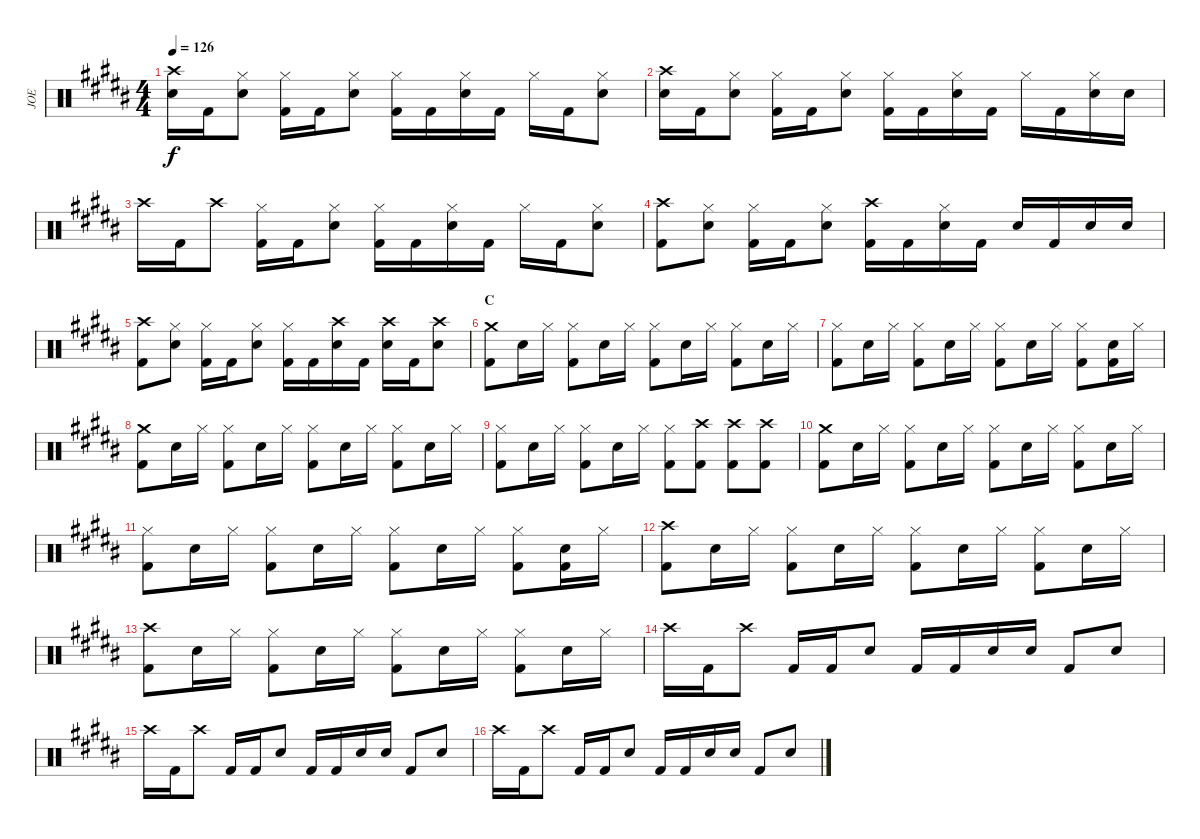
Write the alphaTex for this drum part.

\track ("JOE" "JOE") {instrument percussion}
\staff {score}
\articulation defaults
\ts (4 4)
\tempo 126
\clef neutral
\ks b
("Crash high (hit)" "Snare (hit) 2").16{dy f} "Kick (hit) 2".16 ("Hi-Hat (closed)" "Snare (hit) 2").8 ("Hi-Hat (closed)" "Kick (hit) 2").16 "Kick (hit) 2".16 ("Hi-Hat (closed)" "Snare (hit) 2").8 ("Hi-Hat (closed)" "Kick (hit) 2").16 "Kick (hit) 2".16 ("Hi-Hat (closed)" "Snare (hit) 2").16 "Kick (hit) 2".16 "Hi-Hat (closed)".16 "Kick (hit) 2".16 ("Hi-Hat (closed)" "Snare (hit) 2").8 |
("Crash high (hit)" "Snare (hit) 2").16 "Kick (hit) 2".16 ("Hi-Hat (closed)" "Snare (hit) 2").8 ("Hi-Hat (closed)" "Kick (hit) 2").16 "Kick (hit) 2".16 ("Hi-Hat (closed)" "Snare (hit) 2").8 ("Hi-Hat (closed)" "Kick (hit) 2").16 "Kick (hit) 2".16 ("Hi-Hat (closed)" "Snare (hit) 2").16 "Kick (hit) 2".16 "Hi-Hat (closed)".16 "Kick (hit) 2".16 ("Hi-Hat (closed)" "Snare (hit) 2").16 "Snare (hit) 2".16 |
"Crash high (hit)".16 "Kick (hit) 2".16 "Crash high (hit)".8 ("Hi-Hat (closed)" "Kick (hit) 2").16 "Kick (hit) 2".16 ("Hi-Hat (closed)" "Snare (hit) 2").8 ("Hi-Hat (closed)" "Kick (hit) 2").16 "Kick (hit) 2".16 ("Hi-Hat (closed)" "Snare (hit) 2").16 "Kick (hit) 2".16 "Hi-Hat (closed)".16 "Kick (hit) 2".16 ("Hi-Hat (closed)" "Snare (hit) 2").8 |
("Crash high (hit)" "Kick (hit) 2").8 ("Hi-Hat (closed)" "Snare (hit) 2").8 ("Hi-Hat (closed)" "Kick (hit) 2").16 "Kick (hit) 2".16 ("Hi-Hat (closed)" "Snare (hit) 2").8 ("Crash high (hit)" "Kick (hit) 2").16 "Kick (hit) 2".16 ("Hi-Hat (closed)" "Snare (hit) 2").16 "Kick (hit) 2".16 "Snare (hit) 2".16 "Kick (hit) 2".16 "Snare (hit) 2".16 "Snare (hit) 2".16 |
("Crash high (hit)" "Kick (hit) 2").8 ("Hi-Hat (closed)" "Snare (hit) 2").8 ("Hi-Hat (closed)" "Kick (hit) 2").16 "Kick (hit) 2".16 ("Hi-Hat (closed)" "Snare (hit) 2").8 ("Hi-Hat (closed)" "Kick (hit) 2").16 "Kick (hit) 2".16 ("Crash high (hit)" "Snare (hit) 2").16 "Kick (hit) 2".16 ("Crash high (hit)" "Snare (hit) 2").16 "Kick (hit) 2".16 ("Crash high (hit)" "Snare (hit) 2").8 |
\section ("" "C")
("Crash medium (hit)" "Kick (hit) 2").8 "Snare (hit) 2".16 "Hi-Hat (closed)".16 ("Hi-Hat (closed)" "Kick (hit) 2").8 "Snare (hit) 2".16 "Hi-Hat (closed)".16 ("Hi-Hat (closed)" "Kick (hit) 2").8 "Snare (hit) 2".16 "Hi-Hat (closed)".16 ("Hi-Hat (closed)" "Kick (hit) 2").8 "Snare (hit) 2".16 "Hi-Hat (closed)".16 |
("Hi-Hat (closed)" "Kick (hit) 2").8 "Snare (hit) 2".16 "Hi-Hat (closed)".16 ("Hi-Hat (closed)" "Kick (hit) 2").8 "Snare (hit) 2".16 "Hi-Hat (closed)".16 ("Hi-Hat (closed)" "Kick (hit) 2").8 "Snare (hit) 2".16 "Hi-Hat (closed)".16 ("Hi-Hat (closed)" "Kick (hit) 2").8 ("Kick (hit) 2" "Snare (hit) 2").16 "Hi-Hat (closed)".16 |
("Crash medium (hit)" "Kick (hit) 2").8 "Snare (hit) 2".16 "Hi-Hat (closed)".16 ("Hi-Hat (closed)" "Kick (hit) 2").8 "Snare (hit) 2".16 "Hi-Hat (closed)".16 ("Hi-Hat (closed)" "Kick (hit) 2").8 "Snare (hit) 2".16 "Hi-Hat (closed)".16 ("Hi-Hat (closed)" "Kick (hit) 2").8 "Snare (hit) 2".16 "Hi-Hat (closed)".16 |
("Hi-Hat (closed)" "Kick (hit) 2").8 "Snare (hit) 2".16 "Hi-Hat (closed)".16 ("Hi-Hat (closed)" "Kick (hit) 2").8 "Snare (hit) 2".16 "Hi-Hat (closed)".16 ("Hi-Hat (closed)" "Kick (hit) 2").8 ("Crash high (hit)" "Kick (hit) 2").8 ("Crash high (hit)" "Kick (hit) 2").8 ("Crash high (hit)" "Kick (hit) 2").8 |
("Crash medium (hit)" "Kick (hit) 2").8 "Snare (hit) 2".16 "Hi-Hat (closed)".16 ("Hi-Hat (closed)" "Kick (hit) 2").8 "Snare (hit) 2".16 "Hi-Hat (closed)".16 ("Hi-Hat (closed)" "Kick (hit) 2").8 "Snare (hit) 2".16 "Hi-Hat (closed)".16 ("Hi-Hat (closed)" "Kick (hit) 2").8 "Snare (hit) 2".16 "Hi-Hat (closed)".16 |
("Hi-Hat (closed)" "Kick (hit) 2").8 "Snare (hit) 2".16 "Hi-Hat (closed)".16 ("Hi-Hat (closed)" "Kick (hit) 2").8 "Snare (hit) 2".16 "Hi-Hat (closed)".16 ("Hi-Hat (closed)" "Kick (hit) 2").8 "Snare (hit) 2".16 "Hi-Hat (closed)".16 ("Hi-Hat (closed)" "Kick (hit) 2").8 ("Kick (hit) 2" "Snare (hit) 2").16 "Hi-Hat (closed)".16 |
("Crash high (hit)" "Kick (hit) 2").8 "Snare (hit) 2".16 "Hi-Hat (closed)".16 ("Hi-Hat (closed)" "Kick (hit) 2").8 "Snare (hit) 2".16 "Hi-Hat (closed)".16 ("Hi-Hat (closed)" "Kick (hit) 2").8 "Snare (hit) 2".16 "Hi-Hat (closed)".16 ("Hi-Hat (closed)" "Kick (hit) 2").8 "Snare (hit) 2".16 "Hi-Hat (closed)".16 |
("Crash high (hit)" "Kick (hit) 2").8 "Snare (hit) 2".16 "Hi-Hat (closed)".16 ("Hi-Hat (closed)" "Kick (hit) 2").8 "Snare (hit) 2".16 "Hi-Hat (closed)".16 ("Hi-Hat (closed)" "Kick (hit) 2").8 "Snare (hit) 2".16 "Hi-Hat (closed)".16 ("Hi-Hat (closed)" "Kick (hit) 2").8 "Snare (hit) 2".16 "Hi-Hat (closed)".16 |
"Crash high (hit)".16 "Kick (hit) 2".16 "Crash high (hit)".8 "Kick (hit) 2".16 "Kick (hit) 2".16 "Snare (hit) 2".8 "Kick (hit) 2".16 "Kick (hit) 2".16 "Snare (hit) 2".16 "Snare (hit) 2".16 "Kick (hit) 2".8 "Snare (hit) 2".8 |
"Crash high (hit)".16 "Kick (hit) 2".16 "Crash high (hit)".8 "Kick (hit) 2".16 "Kick (hit) 2".16 "Snare (hit) 2".8 "Kick (hit) 2".16 "Kick (hit) 2".16 "Snare (hit) 2".16 "Snare (hit) 2".16 "Kick (hit) 2".8 "Snare (hit) 2".8 |
"Crash high (hit)".16 "Kick (hit) 2".16 "Crash high (hit)".8 "Kick (hit) 2".16 "Kick (hit) 2".16 "Snare (hit) 2".8 "Kick (hit) 2".16 "Kick (hit) 2".16 "Snare (hit) 2".16 "Snare (hit) 2".16 "Kick (hit) 2".8 "Snare (hit) 2".8
